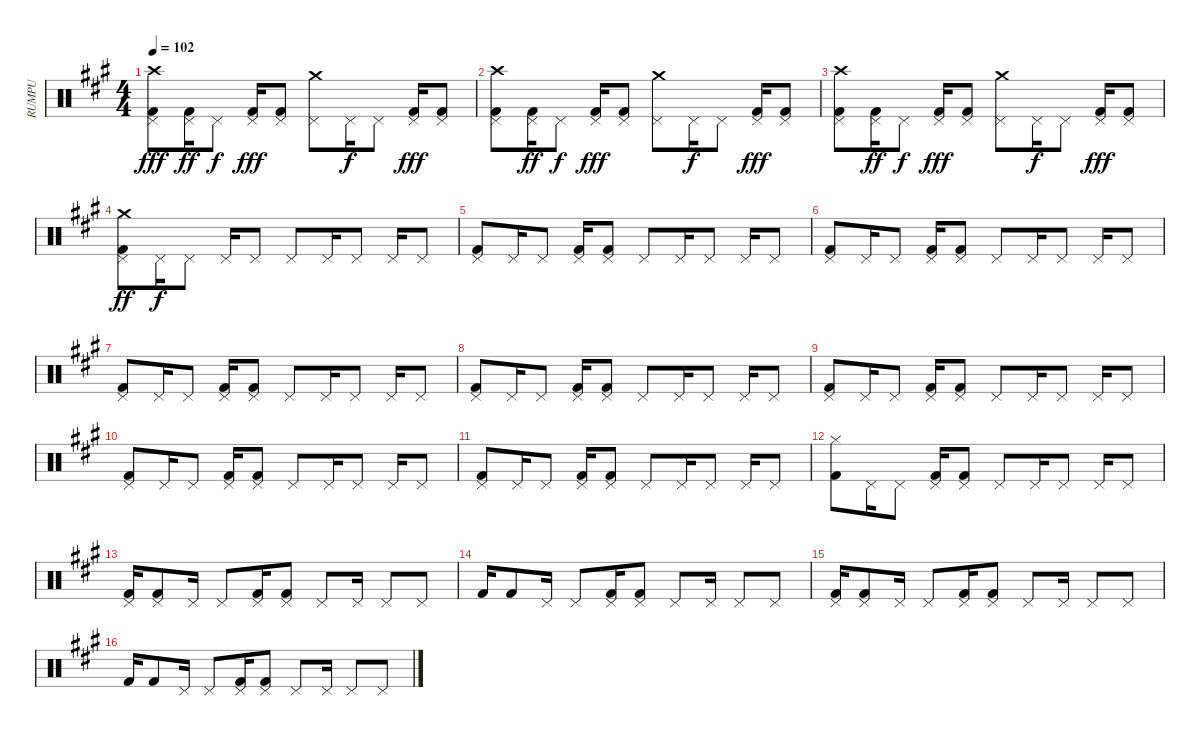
\track ("RUMPU" "RUMPU") {instrument percussion}
\staff {score}
\articulation defaults
\ts (4 4)
\tempo 102
\clef neutral
\ks a
("Crash high (hit)" "Kick (hit) 2" "Pedal Hi-Hat (hit)").8{dy fff} ("Kick (hit) 2" "Pedal Hi-Hat (hit)").16{dy ff} "Pedal Hi-Hat (hit)".8{dy f} ("Kick (hit) 2" "Pedal Hi-Hat (hit)").16{dy fff} ("Kick (hit) 2" "Pedal Hi-Hat (hit)").8 ("Crash medium (hit)" "Pedal Hi-Hat (hit)").8 "Pedal Hi-Hat (hit)".16{dy f} "Pedal Hi-Hat (hit)".8 ("Kick (hit) 2" "Pedal Hi-Hat (hit)").16{dy fff} ("Kick (hit) 2" "Pedal Hi-Hat (hit)").8 |
("Crash high (hit)" "Kick (hit) 2" "Pedal Hi-Hat (hit)").8 ("Kick (hit) 2" "Pedal Hi-Hat (hit)").16{dy ff} "Pedal Hi-Hat (hit)".8{dy f} ("Kick (hit) 2" "Pedal Hi-Hat (hit)").16{dy fff} ("Kick (hit) 2" "Pedal Hi-Hat (hit)").8 ("Crash medium (hit)" "Pedal Hi-Hat (hit)").8 "Pedal Hi-Hat (hit)".16{dy f} "Pedal Hi-Hat (hit)".8 ("Kick (hit) 2" "Pedal Hi-Hat (hit)").16{dy fff} ("Kick (hit) 2" "Pedal Hi-Hat (hit)").8 |
("Crash high (hit)" "Kick (hit) 2" "Pedal Hi-Hat (hit)").8 ("Kick (hit) 2" "Pedal Hi-Hat (hit)").16{dy ff} "Pedal Hi-Hat (hit)".8{dy f} ("Kick (hit) 2" "Pedal Hi-Hat (hit)").16{dy fff} ("Kick (hit) 2" "Pedal Hi-Hat (hit)").8 ("Crash medium (hit)" "Pedal Hi-Hat (hit)").8 "Pedal Hi-Hat (hit)".16{dy f} "Pedal Hi-Hat (hit)".8 ("Kick (hit) 2" "Pedal Hi-Hat (hit)").16{dy fff} ("Kick (hit) 2" "Pedal Hi-Hat (hit)").8 |
("Crash medium (hit)" "Kick (hit) 2" "Pedal Hi-Hat (hit)").8{dy ff} "Pedal Hi-Hat (hit)".16{dy f} "Pedal Hi-Hat (hit)".8 "Pedal Hi-Hat (hit)".16 "Pedal Hi-Hat (hit)".8 "Pedal Hi-Hat (hit)".8 "Pedal Hi-Hat (hit)".16 "Pedal Hi-Hat (hit)".8 "Pedal Hi-Hat (hit)".16 "Pedal Hi-Hat (hit)".8 |
("Kick (hit) 2" "Pedal Hi-Hat (hit)").8 "Pedal Hi-Hat (hit)".16 "Pedal Hi-Hat (hit)".8 ("Kick (hit) 2" "Pedal Hi-Hat (hit)").16 ("Kick (hit) 2" "Pedal Hi-Hat (hit)").8 "Pedal Hi-Hat (hit)".8 "Pedal Hi-Hat (hit)".16 "Pedal Hi-Hat (hit)".8 "Pedal Hi-Hat (hit)".16 "Pedal Hi-Hat (hit)".8 |
("Kick (hit) 2" "Pedal Hi-Hat (hit)").8 "Pedal Hi-Hat (hit)".16 "Pedal Hi-Hat (hit)".8 ("Kick (hit) 2" "Pedal Hi-Hat (hit)").16 ("Kick (hit) 2" "Pedal Hi-Hat (hit)").8 "Pedal Hi-Hat (hit)".8 "Pedal Hi-Hat (hit)".16 "Pedal Hi-Hat (hit)".8 "Pedal Hi-Hat (hit)".16 "Pedal Hi-Hat (hit)".8 |
("Kick (hit) 2" "Pedal Hi-Hat (hit)").8 "Pedal Hi-Hat (hit)".16 "Pedal Hi-Hat (hit)".8 ("Kick (hit) 2" "Pedal Hi-Hat (hit)").16 ("Kick (hit) 2" "Pedal Hi-Hat (hit)").8 "Pedal Hi-Hat (hit)".8 "Pedal Hi-Hat (hit)".16 "Pedal Hi-Hat (hit)".8 "Pedal Hi-Hat (hit)".16 "Pedal Hi-Hat (hit)".8 |
("Kick (hit) 2" "Pedal Hi-Hat (hit)").8 "Pedal Hi-Hat (hit)".16 "Pedal Hi-Hat (hit)".8 ("Kick (hit) 2" "Pedal Hi-Hat (hit)").16 ("Kick (hit) 2" "Pedal Hi-Hat (hit)").8 "Pedal Hi-Hat (hit)".8 "Pedal Hi-Hat (hit)".16 "Pedal Hi-Hat (hit)".8 "Pedal Hi-Hat (hit)".16 "Pedal Hi-Hat (hit)".8 |
("Kick (hit) 2" "Pedal Hi-Hat (hit)").8 "Pedal Hi-Hat (hit)".16 "Pedal Hi-Hat (hit)".8 ("Kick (hit) 2" "Pedal Hi-Hat (hit)").16 ("Kick (hit) 2" "Pedal Hi-Hat (hit)").8 "Pedal Hi-Hat (hit)".8 "Pedal Hi-Hat (hit)".16 "Pedal Hi-Hat (hit)".8 "Pedal Hi-Hat (hit)".16 "Pedal Hi-Hat (hit)".8 |
("Kick (hit) 2" "Pedal Hi-Hat (hit)").8 "Pedal Hi-Hat (hit)".16 "Pedal Hi-Hat (hit)".8 ("Kick (hit) 2" "Pedal Hi-Hat (hit)").16 ("Kick (hit) 2" "Pedal Hi-Hat (hit)").8 "Pedal Hi-Hat (hit)".8 "Pedal Hi-Hat (hit)".16 "Pedal Hi-Hat (hit)".8 "Pedal Hi-Hat (hit)".16 "Pedal Hi-Hat (hit)".8 |
("Kick (hit) 2" "Pedal Hi-Hat (hit)").8 "Pedal Hi-Hat (hit)".16 "Pedal Hi-Hat (hit)".8 ("Kick (hit) 2" "Pedal Hi-Hat (hit)").16 ("Kick (hit) 2" "Pedal Hi-Hat (hit)").8 "Pedal Hi-Hat (hit)".8 "Pedal Hi-Hat (hit)".16 "Pedal Hi-Hat (hit)".8 "Pedal Hi-Hat (hit)".16 "Pedal Hi-Hat (hit)".8 |
("Kick (hit) 2" "Hi-Hat (closed)").8 "Pedal Hi-Hat (hit)".16 "Pedal Hi-Hat (hit)".8 ("Kick (hit) 2" "Pedal Hi-Hat (hit)").16 ("Kick (hit) 2" "Pedal Hi-Hat (hit)").8 "Pedal Hi-Hat (hit)".8 "Pedal Hi-Hat (hit)".16 "Pedal Hi-Hat (hit)".8 "Pedal Hi-Hat (hit)".16 "Pedal Hi-Hat (hit)".8 |
("Kick (hit) 2" "Pedal Hi-Hat (hit)").16 ("Kick (hit) 2" "Pedal Hi-Hat (hit)").8 "Pedal Hi-Hat (hit)".16 "Pedal Hi-Hat (hit)".8 ("Kick (hit) 2" "Pedal Hi-Hat (hit)").16 ("Kick (hit) 2" "Pedal Hi-Hat (hit)").8 "Pedal Hi-Hat (hit)".8 "Pedal Hi-Hat (hit)".16 "Pedal Hi-Hat (hit)".8 "Pedal Hi-Hat (hit)".8 |
"Kick (hit) 2".16 "Kick (hit) 2".8 "Pedal Hi-Hat (hit)".16 "Pedal Hi-Hat (hit)".8 ("Kick (hit) 2" "Pedal Hi-Hat (hit)").16 ("Kick (hit) 2" "Pedal Hi-Hat (hit)").8 "Pedal Hi-Hat (hit)".8 "Pedal Hi-Hat (hit)".16 "Pedal Hi-Hat (hit)".8 "Pedal Hi-Hat (hit)".8 |
("Kick (hit) 2" "Pedal Hi-Hat (hit)").16 ("Kick (hit) 2" "Pedal Hi-Hat (hit)").8 "Pedal Hi-Hat (hit)".16 "Pedal Hi-Hat (hit)".8 ("Kick (hit) 2" "Pedal Hi-Hat (hit)").16 ("Kick (hit) 2" "Pedal Hi-Hat (hit)").8 "Pedal Hi-Hat (hit)".8 "Pedal Hi-Hat (hit)".16 "Pedal Hi-Hat (hit)".8 "Pedal Hi-Hat (hit)".8 |
"Kick (hit) 2".16 "Kick (hit) 2".8 "Pedal Hi-Hat (hit)".16 "Pedal Hi-Hat (hit)".8 ("Kick (hit) 2" "Pedal Hi-Hat (hit)").16 ("Kick (hit) 2" "Pedal Hi-Hat (hit)").8 "Pedal Hi-Hat (hit)".8 "Pedal Hi-Hat (hit)".16 "Pedal Hi-Hat (hit)".8 "Pedal Hi-Hat (hit)".8
